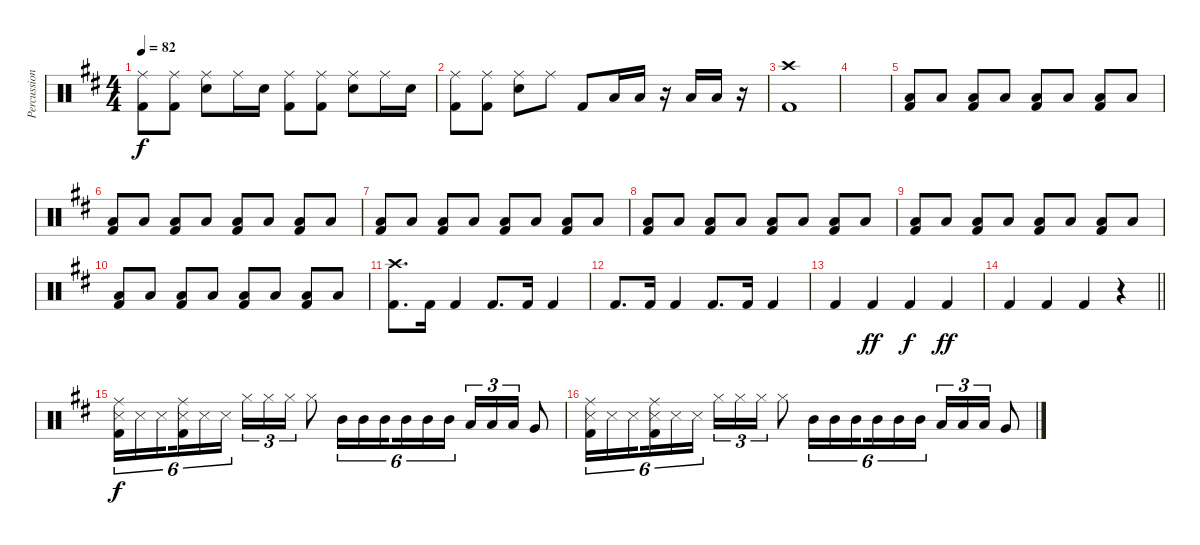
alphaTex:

\track ("Percussion" "Percussion") {instrument percussion}
\staff {score}
\articulation defaults
\ts (4 4)
\tempo 82
\clef neutral
\ks d
("Ride (middle)" "Kick (hit) 2").8{dy f} ("Ride (middle)" "Kick (hit) 2").8 ("Ride (middle)" "Snare (hit) 2").8 "Ride (middle)".16 "Snare (hit) 2".16 ("Ride (middle)" "Kick (hit) 2").8 ("Ride (middle)" "Kick (hit) 2").8 ("Ride (middle)" "Snare (hit) 2").8 "Ride (middle)".16 "Snare (hit) 2".16 |
("Ride (middle)" "Kick (hit) 2").8 ("Ride (middle)" "Kick (hit) 2").8 ("Ride (middle)" "Snare (hit) 2").8 "Ride (middle)".8 "Kick (hit) 2".8 "Low Floor Tom (hit)".16 "Low Floor Tom (hit)".16 r.16 "Low Floor Tom (hit)".16 "Low Floor Tom (hit)".16 r.16 |
("Crash high (hit)" "Kick (hit) 2").1 |
|
("Low Floor Tom (hit)" "Kick (hit) 2").8 "Low Floor Tom (hit)".8 ("Low Floor Tom (hit)" "Kick (hit) 2").8 "Low Floor Tom (hit)".8 ("Low Floor Tom (hit)" "Kick (hit) 2").8 "Low Floor Tom (hit)".8 ("Low Floor Tom (hit)" "Kick (hit) 2").8 "Low Floor Tom (hit)".8 |
("Low Floor Tom (hit)" "Kick (hit) 2").8 "Low Floor Tom (hit)".8 ("Low Floor Tom (hit)" "Kick (hit) 2").8 "Low Floor Tom (hit)".8 ("Low Floor Tom (hit)" "Kick (hit) 2").8 "Low Floor Tom (hit)".8 ("Low Floor Tom (hit)" "Kick (hit) 2").8 "Low Floor Tom (hit)".8 |
("Low Floor Tom (hit)" "Kick (hit) 2").8 "Low Floor Tom (hit)".8 ("Low Floor Tom (hit)" "Kick (hit) 2").8 "Low Floor Tom (hit)".8 ("Low Floor Tom (hit)" "Kick (hit) 2").8 "Low Floor Tom (hit)".8 ("Low Floor Tom (hit)" "Kick (hit) 2").8 "Low Floor Tom (hit)".8 |
("Low Floor Tom (hit)" "Kick (hit) 2").8 "Low Floor Tom (hit)".8 ("Low Floor Tom (hit)" "Kick (hit) 2").8 "Low Floor Tom (hit)".8 ("Low Floor Tom (hit)" "Kick (hit) 2").8 "Low Floor Tom (hit)".8 ("Low Floor Tom (hit)" "Kick (hit) 2").8 "Low Floor Tom (hit)".8 |
("Low Floor Tom (hit)" "Kick (hit) 2").8 "Low Floor Tom (hit)".8 ("Low Floor Tom (hit)" "Kick (hit) 2").8 "Low Floor Tom (hit)".8 ("Low Floor Tom (hit)" "Kick (hit) 2").8 "Low Floor Tom (hit)".8 ("Low Floor Tom (hit)" "Kick (hit) 2").8 "Low Floor Tom (hit)".8 |
("Low Floor Tom (hit)" "Kick (hit) 2").8 "Low Floor Tom (hit)".8 ("Low Floor Tom (hit)" "Kick (hit) 2").8 "Low Floor Tom (hit)".8 ("Low Floor Tom (hit)" "Kick (hit) 2").8 "Low Floor Tom (hit)".8 ("Low Floor Tom (hit)" "Kick (hit) 2").8 "Low Floor Tom (hit)".8 |
("Crash high (hit)" "Kick (hit) 2").8{d} "Kick (hit) 2".16 "Kick (hit) 2".4 "Kick (hit) 2".8{d} "Kick (hit) 2".16 "Kick (hit) 2".4 |
"Kick (hit) 2".8{d} "Kick (hit) 2".16 "Kick (hit) 2".4 "Kick (hit) 2".8{d} "Kick (hit) 2".16 "Kick (hit) 2".4 |
"Kick (hit) 2".4 "Kick (hit) 2".4{dy ff} "Kick (hit) 2".4{dy f} "Kick (hit) 2".4{dy ff} |
\barLineRight lightlight "Kick (hit) 2".4 "Kick (hit) 2".4 "Kick (hit) 2".4
r.4 |
("Snare (side stick) 3" "Kick (hit) 2" "Ride (middle)").16{tu (6 4) dy f} "Snare (side stick) 3".16{tu (6 4)} "Snare (side stick) 3".16{tu (6 4) beam splitsecondary} ("Snare (side stick) 3" "Kick (hit) 2" "Ride (middle)").16{tu (6 4)} "Snare (side stick) 3".16{tu (6 4)} "Snare (side stick) 3".16{tu (6 4)} "Hi-Hat (closed)".16{tu (3 2)} "Hi-Hat (closed)".16{tu (3 2)} "Hi-Hat (closed)".16{tu (3 2)} "Hi-Hat (closed)".8 "Mid Tom (hit)".16{tu (6 4)} "Mid Tom (hit)".16{tu (6 4)} "Mid Tom (hit)".16{tu (6 4) beam splitsecondary} "Mid Tom (hit)".16{tu (6 4)} "Mid Tom (hit)".16{tu (6 4)} "Mid Tom (hit)".16{tu (6 4)} "Low Tom (hit)".16{tu (3 2)} "Low Tom (hit)".16{tu (3 2)} "Low Tom (hit)".16{tu (3 2)} "Very Low Tom (hit)".8 |
("Snare (side stick) 3" "Kick (hit) 2" "Ride (middle)").16{tu (6 4)} "Snare (side stick) 3".16{tu (6 4)} "Snare (side stick) 3".16{tu (6 4) beam splitsecondary} ("Snare (side stick) 3" "Kick (hit) 2" "Ride (middle)").16{tu (6 4)} "Snare (side stick) 3".16{tu (6 4)} "Snare (side stick) 3".16{tu (6 4)} "Hi-Hat (closed)".16{tu (3 2)} "Hi-Hat (closed)".16{tu (3 2)} "Hi-Hat (closed)".16{tu (3 2)} "Hi-Hat (closed)".8 "Mid Tom (hit)".16{tu (6 4)} "Mid Tom (hit)".16{tu (6 4)} "Mid Tom (hit)".16{tu (6 4) beam splitsecondary} "Mid Tom (hit)".16{tu (6 4)} "Mid Tom (hit)".16{tu (6 4)} "Mid Tom (hit)".16{tu (6 4)} "Low Tom (hit)".16{tu (3 2)} "Low Tom (hit)".16{tu (3 2)} "Low Tom (hit)".16{tu (3 2)} "Very Low Tom (hit)".8
